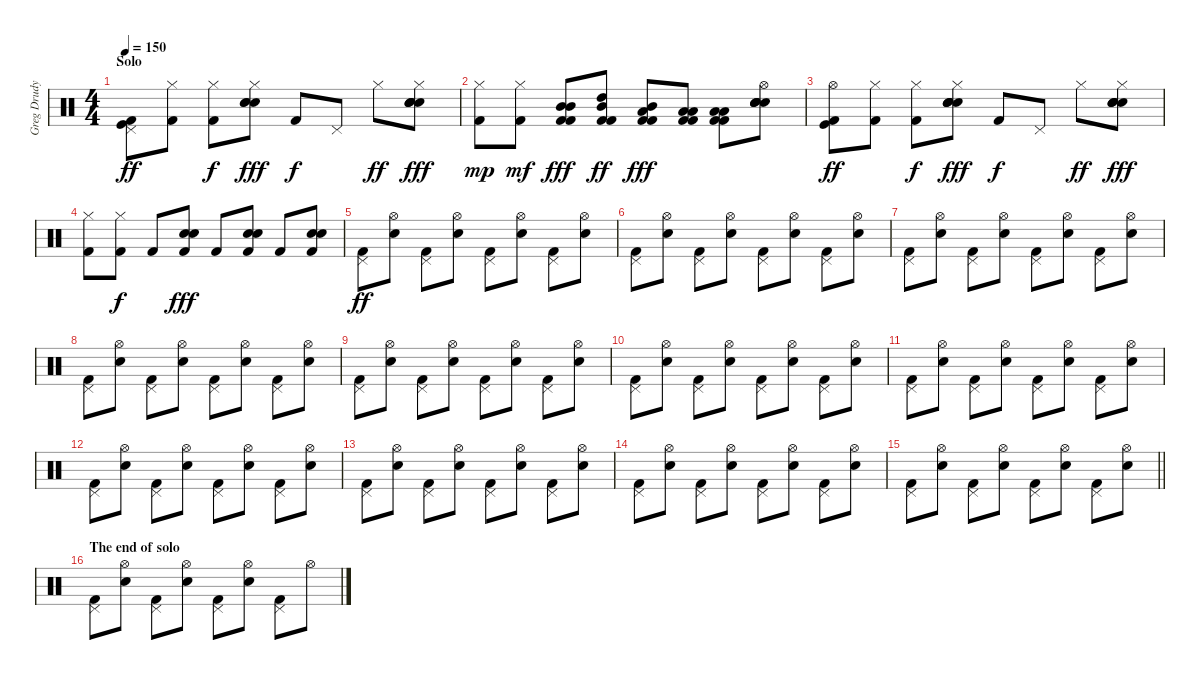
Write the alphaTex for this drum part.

\track ("Greg Drudy" "Greg Drudy") {instrument percussion}
\staff {score}
\articulation defaults
\ts (4 4)
\section ("" "Solo")
\tempo 150
\clef neutral
\ks c
("Pedal Hi-Hat (hit)" "Kick (hit)" "Kick (hit) 2").8{dy ff} ("Hi-Hat (closed)" "Kick (hit) 2").8 ("Hi-Hat (closed)" "Kick (hit) 2").8{dy f} ("Hi-Hat (closed)" "Snare (hit) 2" "Snare (hit) 2" "Electric Snare (hit)").8{dy fff} "Kick (hit) 2".8{dy f} "Pedal Hi-Hat (hit)".8 "Hi-Hat (closed)".8{dy ff} ("Hi-Hat (closed)" "Snare (hit) 2" "Snare (hit) 2" "Electric Snare (hit)" "Electric Snare (hit)").8{dy fff} |
("Hi-Hat (closed)" "Kick (hit) 2").8{dy mp} ("Hi-Hat (closed)" "Kick (hit) 2").8{dy mf} ("Mid Tom (hit)" "Mid Tom (hit)" "Kick (hit) 2" "Kick (hit) 2").8{dy fff} ("High Tom (hit)" "Mid Tom (hit)" "Kick (hit) 2" "Kick (hit) 2").8{dy ff} ("Mid Tom (hit)" "Low Tom (hit)" "Kick (hit) 2" "Kick (hit) 2").8{dy fff} ("Low Tom (hit)" "Low Tom (hit)" "Kick (hit) 2" "Kick (hit) 2").8 ("Low Tom (hit)" "Low Tom (hit)" "Kick (hit) 2" "Kick (hit) 2").8 ("Hi-Hat (open)" "Snare (hit) 2" "Snare (hit) 2" "Electric Snare (hit)" "Electric Snare (hit)").8 |
("Hi-Hat (open)" "Kick (hit)" "Kick (hit) 2").8{dy ff} ("Hi-Hat (closed)" "Kick (hit) 2").8 ("Hi-Hat (closed)" "Kick (hit) 2").8{dy f} ("Hi-Hat (closed)" "Snare (hit) 2" "Snare (hit) 2" "Electric Snare (hit)" "Electric Snare (hit)").8{dy fff} "Kick (hit) 2".8{dy f} "Pedal Hi-Hat (hit)".8 "Hi-Hat (closed)".8{dy ff} ("Hi-Hat (closed)" "Snare (hit) 2" "Snare (hit) 2" "Electric Snare (hit)" "Electric Snare (hit)").8{dy fff} |
("Hi-Hat (closed)" "Kick (hit) 2").8 ("Hi-Hat (closed)" "Kick (hit) 2").8{dy f} "Kick (hit) 2".8 ("Snare (hit) 2" "Electric Snare (hit)" "Kick (hit) 2").8{dy fff} "Kick (hit) 2".8 ("Snare (hit) 2" "Electric Snare (hit)" "Kick (hit) 2").8 "Kick (hit) 2".8 ("Snare (hit) 2" "Electric Snare (hit)" "Kick (hit) 2").8 |
("Pedal Hi-Hat (hit)" "Kick (hit) 2").8{dy ff} ("Hi-Hat (open)" "Snare (hit) 2").8 ("Pedal Hi-Hat (hit)" "Kick (hit) 2").8 ("Hi-Hat (open)" "Snare (hit) 2").8 ("Pedal Hi-Hat (hit)" "Kick (hit) 2").8 ("Hi-Hat (open)" "Snare (hit) 2").8 ("Pedal Hi-Hat (hit)" "Kick (hit) 2").8 ("Hi-Hat (open)" "Snare (hit) 2").8 |
("Pedal Hi-Hat (hit)" "Kick (hit) 2").8 ("Hi-Hat (open)" "Snare (hit) 2").8 ("Pedal Hi-Hat (hit)" "Kick (hit) 2").8 ("Hi-Hat (open)" "Snare (hit) 2").8 ("Pedal Hi-Hat (hit)" "Kick (hit) 2").8 ("Hi-Hat (open)" "Snare (hit) 2").8 ("Pedal Hi-Hat (hit)" "Kick (hit) 2").8 ("Hi-Hat (open)" "Snare (hit) 2").8 |
("Pedal Hi-Hat (hit)" "Kick (hit) 2").8 ("Hi-Hat (open)" "Snare (hit) 2").8 ("Pedal Hi-Hat (hit)" "Kick (hit) 2").8 ("Hi-Hat (open)" "Snare (hit) 2").8 ("Pedal Hi-Hat (hit)" "Kick (hit) 2").8 ("Hi-Hat (open)" "Snare (hit) 2").8 ("Pedal Hi-Hat (hit)" "Kick (hit) 2").8 ("Hi-Hat (open)" "Snare (hit) 2").8 |
("Pedal Hi-Hat (hit)" "Kick (hit) 2").8 ("Hi-Hat (open)" "Snare (hit) 2").8 ("Pedal Hi-Hat (hit)" "Kick (hit) 2").8 ("Hi-Hat (open)" "Snare (hit) 2").8 ("Pedal Hi-Hat (hit)" "Kick (hit) 2").8 ("Hi-Hat (open)" "Snare (hit) 2").8 ("Pedal Hi-Hat (hit)" "Kick (hit) 2").8 ("Hi-Hat (open)" "Snare (hit) 2").8 |
("Pedal Hi-Hat (hit)" "Kick (hit) 2").8 ("Hi-Hat (open)" "Snare (hit) 2").8 ("Pedal Hi-Hat (hit)" "Kick (hit) 2").8 ("Hi-Hat (open)" "Snare (hit) 2").8 ("Pedal Hi-Hat (hit)" "Kick (hit) 2").8 ("Hi-Hat (open)" "Snare (hit) 2").8 ("Pedal Hi-Hat (hit)" "Kick (hit) 2").8 ("Hi-Hat (open)" "Snare (hit) 2").8 |
("Pedal Hi-Hat (hit)" "Kick (hit) 2").8 ("Hi-Hat (open)" "Snare (hit) 2").8 ("Pedal Hi-Hat (hit)" "Kick (hit) 2").8 ("Hi-Hat (open)" "Snare (hit) 2").8 ("Pedal Hi-Hat (hit)" "Kick (hit) 2").8 ("Hi-Hat (open)" "Snare (hit) 2").8 ("Pedal Hi-Hat (hit)" "Kick (hit) 2").8 ("Hi-Hat (open)" "Snare (hit) 2").8 |
("Pedal Hi-Hat (hit)" "Kick (hit) 2").8 ("Hi-Hat (open)" "Snare (hit) 2").8 ("Pedal Hi-Hat (hit)" "Kick (hit) 2").8 ("Hi-Hat (open)" "Snare (hit) 2").8 ("Pedal Hi-Hat (hit)" "Kick (hit) 2").8 ("Hi-Hat (open)" "Snare (hit) 2").8 ("Pedal Hi-Hat (hit)" "Kick (hit) 2").8 ("Hi-Hat (open)" "Snare (hit) 2").8 |
("Pedal Hi-Hat (hit)" "Kick (hit) 2").8 ("Hi-Hat (open)" "Snare (hit) 2").8 ("Pedal Hi-Hat (hit)" "Kick (hit) 2").8 ("Hi-Hat (open)" "Snare (hit) 2").8 ("Pedal Hi-Hat (hit)" "Kick (hit) 2").8 ("Hi-Hat (open)" "Snare (hit) 2").8 ("Pedal Hi-Hat (hit)" "Kick (hit) 2").8 ("Hi-Hat (open)" "Snare (hit) 2").8 |
("Pedal Hi-Hat (hit)" "Kick (hit) 2").8 ("Hi-Hat (open)" "Snare (hit) 2").8 ("Pedal Hi-Hat (hit)" "Kick (hit) 2").8 ("Hi-Hat (open)" "Snare (hit) 2").8 ("Pedal Hi-Hat (hit)" "Kick (hit) 2").8 ("Hi-Hat (open)" "Snare (hit) 2").8 ("Pedal Hi-Hat (hit)" "Kick (hit) 2").8 ("Hi-Hat (open)" "Snare (hit) 2").8 |
("Pedal Hi-Hat (hit)" "Kick (hit) 2").8 ("Hi-Hat (open)" "Snare (hit) 2").8 ("Pedal Hi-Hat (hit)" "Kick (hit) 2").8 ("Hi-Hat (open)" "Snare (hit) 2").8 ("Pedal Hi-Hat (hit)" "Kick (hit) 2").8 ("Hi-Hat (open)" "Snare (hit) 2").8 ("Pedal Hi-Hat (hit)" "Kick (hit) 2").8 ("Hi-Hat (open)" "Snare (hit) 2").8 |
\barLineRight lightlight
("Pedal Hi-Hat (hit)" "Kick (hit) 2").8 ("Hi-Hat (open)" "Snare (hit) 2").8 ("Pedal Hi-Hat (hit)" "Kick (hit) 2").8 ("Hi-Hat (open)" "Snare (hit) 2").8 ("Pedal Hi-Hat (hit)" "Kick (hit) 2").8 ("Hi-Hat (open)" "Snare (hit) 2").8 ("Pedal Hi-Hat (hit)" "Kick (hit) 2").8 ("Hi-Hat (open)" "Snare (hit) 2").8 |
\section ("" "The end of solo")
("Pedal Hi-Hat (hit)" "Kick (hit) 2").8 ("Hi-Hat (open)" "Snare (hit) 2").8 ("Pedal Hi-Hat (hit)" "Kick (hit) 2").8 ("Hi-Hat (open)" "Snare (hit) 2").8 ("Pedal Hi-Hat (hit)" "Kick (hit) 2").8 ("Hi-Hat (open)" "Snare (hit) 2").8 ("Pedal Hi-Hat (hit)" "Kick (hit) 2").8 "Hi-Hat (open)".8
